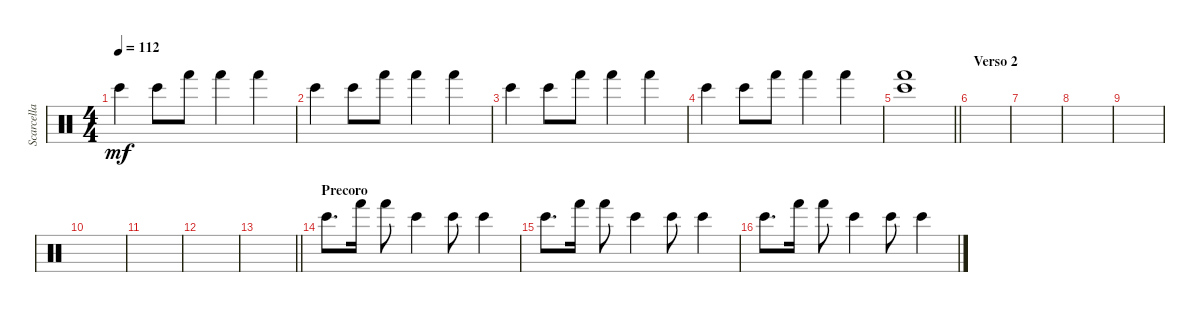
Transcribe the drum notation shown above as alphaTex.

\track ("Scarcella" "Scarcella") {instrument percussion}
\staff {score}
\articulation defaults
\ts (4 4)
\tempo 112
\clef neutral
\ks c "Bongo High (hit)".4{dy mf} "Bongo High (hit)".8 "Hand (hit)".8 "Hand (hit)".4 "Hand (hit)".4
|
"Bongo High (hit)".4 "Bongo High (hit)".8 "Hand (hit)".8 "Hand (hit)".4 "Hand (hit)".4 |
"Bongo High (hit)".4 "Bongo High (hit)".8 "Hand (hit)".8 "Hand (hit)".4 "Hand (hit)".4 |
"Bongo High (hit)".4 "Bongo High (hit)".8 "Hand (hit)".8 "Hand (hit)".4 "Hand (hit)".4 |
\barLineRight lightlight
("Bongo High (hit)" "Hand (hit)").1 |
\section ("" "Verso 2")
|
|
|
|
|
|
|
\barLineRight lightlight
|
\section ("" "Precoro")
"Bongo High (hit)".8{d} "Hand (hit)".16 "Hand (hit)".8 "Bongo High (hit)".4 "Bongo High (hit)".8 "Bongo High (hit)".4 |
"Bongo High (hit)".8{d} "Hand (hit)".16 "Hand (hit)".8 "Bongo High (hit)".4 "Bongo High (hit)".8 "Bongo High (hit)".4 |
"Bongo High (hit)".8{d} "Hand (hit)".16 "Hand (hit)".8 "Bongo High (hit)".4 "Bongo High (hit)".8 "Bongo High (hit)".4
